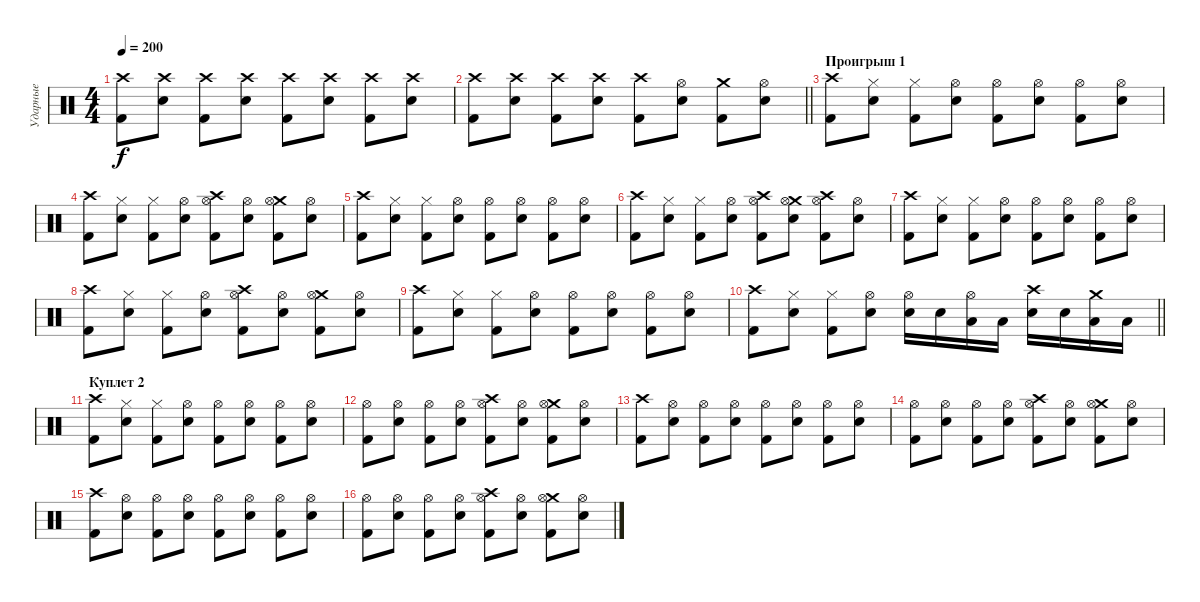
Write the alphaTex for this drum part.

\track ("Ударные" "Ударные") {instrument percussion}
\staff {score}
\articulation defaults
\ts (4 4)
\tempo 200
\clef neutral
\ks c
("Crash high (hit)" "Kick (hit) 2").8{dy f} ("Crash high (hit)" "Snare (hit) 2").8 ("Crash high (hit)" "Kick (hit) 2").8 ("Crash high (hit)" "Snare (hit) 2").8 ("Crash high (hit)" "Kick (hit) 2").8 ("Crash high (hit)" "Snare (hit) 2").8 ("Crash high (hit)" "Kick (hit) 2").8 ("Crash high (hit)" "Snare (hit) 2").8 |
\barLineRight lightlight
("Crash high (hit)" "Kick (hit) 2").8 ("Crash high (hit)" "Snare (hit) 2").8 ("Crash high (hit)" "Kick (hit) 2").8 ("Crash high (hit)" "Snare (hit) 2").8 ("Crash high (hit)" "Kick (hit) 2").8 ("Hi-Hat (open)" "Snare (hit) 2").8 ("Crash medium (hit)" "Kick (hit) 2").8 ("Hi-Hat (open)" "Snare (hit) 2").8 |
\section ("" "Проигрыш 1")
("Crash high (hit)" "Kick (hit) 2").8 ("Hi-Hat (closed)" "Snare (hit) 2").8 ("Hi-Hat (closed)" "Kick (hit) 2").8 ("Hi-Hat (open)" "Snare (hit) 2").8 ("Hi-Hat (open)" "Kick (hit) 2").8 ("Hi-Hat (open)" "Snare (hit) 2").8 ("Hi-Hat (open)" "Kick (hit) 2").8 ("Hi-Hat (open)" "Snare (hit) 2").8 |
("Crash high (hit)" "Kick (hit) 2").8 ("Hi-Hat (closed)" "Snare (hit) 2").8 ("Hi-Hat (closed)" "Kick (hit) 2").8 ("Hi-Hat (open)" "Snare (hit) 2").8 ("Crash high (hit)" "Hi-Hat (open)" "Kick (hit) 2").8 ("Hi-Hat (open)" "Snare (hit) 2").8 ("Crash medium (hit)" "Hi-Hat (open)" "Kick (hit) 2").8 ("Hi-Hat (open)" "Snare (hit) 2").8 |
("Crash high (hit)" "Kick (hit) 2").8 ("Hi-Hat (closed)" "Snare (hit) 2").8 ("Hi-Hat (closed)" "Kick (hit) 2").8 ("Hi-Hat (open)" "Snare (hit) 2").8 ("Hi-Hat (open)" "Kick (hit) 2").8 ("Hi-Hat (open)" "Snare (hit) 2").8 ("Hi-Hat (open)" "Kick (hit) 2").8 ("Hi-Hat (open)" "Snare (hit) 2").8 |
("Crash high (hit)" "Kick (hit) 2").8 ("Hi-Hat (closed)" "Snare (hit) 2").8 ("Hi-Hat (closed)" "Kick (hit) 2").8 ("Hi-Hat (open)" "Snare (hit) 2").8 ("Crash high (hit)" "Hi-Hat (open)" "Kick (hit) 2").8 ("Crash medium (hit)" "Hi-Hat (open)" "Snare (hit) 2").8 ("Crash high (hit)" "Hi-Hat (open)" "Kick (hit) 2").8 ("Hi-Hat (open)" "Snare (hit) 2").8 |
("Crash high (hit)" "Kick (hit) 2").8 ("Hi-Hat (closed)" "Snare (hit) 2").8 ("Hi-Hat (closed)" "Kick (hit) 2").8 ("Hi-Hat (open)" "Snare (hit) 2").8 ("Hi-Hat (open)" "Kick (hit) 2").8 ("Hi-Hat (open)" "Snare (hit) 2").8 ("Hi-Hat (open)" "Kick (hit) 2").8 ("Hi-Hat (open)" "Snare (hit) 2").8 |
("Crash high (hit)" "Kick (hit) 2").8 ("Hi-Hat (closed)" "Snare (hit) 2").8 ("Hi-Hat (closed)" "Kick (hit) 2").8 ("Hi-Hat (open)" "Snare (hit) 2").8 ("Crash high (hit)" "Hi-Hat (open)" "Kick (hit) 2").8 ("Hi-Hat (open)" "Snare (hit) 2").8 ("Crash medium (hit)" "Hi-Hat (open)" "Kick (hit) 2").8 ("Hi-Hat (open)" "Snare (hit) 2").8 |
("Crash high (hit)" "Kick (hit) 2").8 ("Hi-Hat (closed)" "Snare (hit) 2").8 ("Hi-Hat (closed)" "Kick (hit) 2").8 ("Hi-Hat (open)" "Snare (hit) 2").8 ("Hi-Hat (open)" "Kick (hit) 2").8 ("Hi-Hat (open)" "Snare (hit) 2").8 ("Hi-Hat (open)" "Kick (hit) 2").8 ("Hi-Hat (open)" "Snare (hit) 2").8 |
\barLineRight lightlight
("Crash high (hit)" "Kick (hit) 2").8 ("Hi-Hat (closed)" "Snare (hit) 2").8 ("Hi-Hat (closed)" "Kick (hit) 2").8 ("Hi-Hat (open)" "Snare (hit) 2").8 ("Hi-Hat (open)" "Snare (hit) 2").16 "Snare (hit) 2".16 ("Hi-Hat (open)" "Low Tom (hit)").16 "Low Tom (hit)".16 ("Crash high (hit)" "Snare (hit) 2").16 "Snare (hit) 2".16 ("Crash medium (hit)" "Low Tom (hit)").16 "Low Tom (hit)".16 |
\section ("" "Куплет 2")
("Crash high (hit)" "Kick (hit) 2").8 ("Hi-Hat (closed)" "Snare (hit) 2").8 ("Hi-Hat (closed)" "Kick (hit) 2").8 ("Hi-Hat (open)" "Snare (hit) 2").8 ("Hi-Hat (open)" "Kick (hit) 2").8 ("Hi-Hat (open)" "Snare (hit) 2").8 ("Hi-Hat (open)" "Kick (hit) 2").8 ("Hi-Hat (open)" "Snare (hit) 2").8 |
("Hi-Hat (open)" "Kick (hit) 2").8 ("Hi-Hat (open)" "Snare (hit) 2").8 ("Hi-Hat (open)" "Kick (hit) 2").8 ("Hi-Hat (open)" "Snare (hit) 2").8 ("Crash high (hit)" "Hi-Hat (open)" "Kick (hit) 2").8 ("Hi-Hat (open)" "Snare (hit) 2").8 ("Crash medium (hit)" "Hi-Hat (open)" "Kick (hit) 2").8 ("Hi-Hat (open)" "Snare (hit) 2").8 |
("Crash high (hit)" "Kick (hit) 2").8 ("Hi-Hat (open)" "Snare (hit) 2").8 ("Hi-Hat (open)" "Kick (hit) 2").8 ("Hi-Hat (open)" "Snare (hit) 2").8 ("Hi-Hat (open)" "Kick (hit) 2").8 ("Hi-Hat (open)" "Snare (hit) 2").8 ("Hi-Hat (open)" "Kick (hit) 2").8 ("Hi-Hat (open)" "Snare (hit) 2").8 |
("Hi-Hat (open)" "Kick (hit) 2").8 ("Hi-Hat (open)" "Snare (hit) 2").8 ("Hi-Hat (open)" "Kick (hit) 2").8 ("Hi-Hat (open)" "Snare (hit) 2").8 ("Crash high (hit)" "Hi-Hat (open)" "Kick (hit) 2").8 ("Hi-Hat (open)" "Snare (hit) 2").8 ("Crash medium (hit)" "Hi-Hat (open)" "Kick (hit) 2").8 ("Hi-Hat (open)" "Snare (hit) 2").8 |
("Crash high (hit)" "Kick (hit) 2").8 ("Hi-Hat (open)" "Snare (hit) 2").8 ("Hi-Hat (open)" "Kick (hit) 2").8 ("Hi-Hat (open)" "Snare (hit) 2").8 ("Hi-Hat (open)" "Kick (hit) 2").8 ("Hi-Hat (open)" "Snare (hit) 2").8 ("Hi-Hat (open)" "Kick (hit) 2").8 ("Hi-Hat (open)" "Snare (hit) 2").8 |
("Hi-Hat (open)" "Kick (hit) 2").8 ("Hi-Hat (open)" "Snare (hit) 2").8 ("Hi-Hat (open)" "Kick (hit) 2").8 ("Hi-Hat (open)" "Snare (hit) 2").8 ("Crash high (hit)" "Hi-Hat (open)" "Kick (hit) 2").8 ("Hi-Hat (open)" "Snare (hit) 2").8 ("Crash medium (hit)" "Hi-Hat (open)" "Kick (hit) 2").8 ("Hi-Hat (open)" "Snare (hit) 2").8
